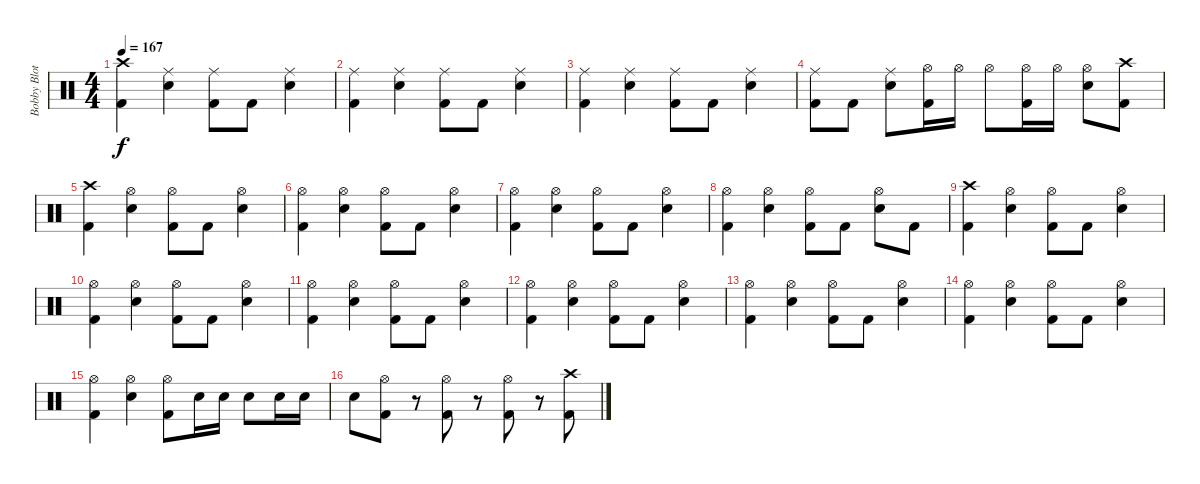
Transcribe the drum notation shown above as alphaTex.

\track ("Bobby Blotzer" "Bobby Blot") {instrument percussion}
\staff {score}
\articulation defaults
\ts (4 4)
\tempo 167
\clef neutral
\ks c
("Crash high (hit)" "Kick (hit) 2").4{dy f} ("Ride (middle)" "Electric Snare (hit)").4 ("Ride (middle)" "Kick (hit) 2").8 "Kick (hit) 2".8 ("Ride (middle)" "Electric Snare (hit)").4 |
("Ride (middle)" "Kick (hit) 2").4 ("Ride (middle)" "Electric Snare (hit)").4 ("Ride (middle)" "Kick (hit) 2").8 "Kick (hit) 2".8 ("Ride (middle)" "Electric Snare (hit)").4 |
("Ride (middle)" "Kick (hit) 2").4 ("Ride (middle)" "Electric Snare (hit)").4 ("Ride (middle)" "Kick (hit) 2").8 "Kick (hit) 2".8 ("Ride (middle)" "Electric Snare (hit)").4 |
("Ride (middle)" "Kick (hit) 2").8 "Kick (hit) 2".8 ("Ride (middle)" "Electric Snare (hit)").8 ("Hi-Hat (open)" "Kick (hit) 2").16 "Hi-Hat (open)".16 "Hi-Hat (open)".8 ("Hi-Hat (open)" "Kick (hit) 2").16 "Hi-Hat (open)".16 ("Hi-Hat (open)" "Electric Snare (hit)").8 ("Crash high (hit)" "Kick (hit) 2").8 |
("Crash high (hit)" "Kick (hit) 2").4 ("Hi-Hat (open)" "Electric Snare (hit)").4 ("Hi-Hat (open)" "Kick (hit) 2").8 "Kick (hit) 2".8 ("Hi-Hat (open)" "Electric Snare (hit)").4 |
("Hi-Hat (open)" "Kick (hit) 2").4 ("Hi-Hat (open)" "Electric Snare (hit)").4 ("Hi-Hat (open)" "Kick (hit) 2").8 "Kick (hit) 2".8 ("Hi-Hat (open)" "Electric Snare (hit)").4 |
("Hi-Hat (open)" "Kick (hit) 2").4 ("Hi-Hat (open)" "Electric Snare (hit)").4 ("Hi-Hat (open)" "Kick (hit) 2").8 "Kick (hit) 2".8 ("Hi-Hat (open)" "Electric Snare (hit)").4 |
("Hi-Hat (open)" "Kick (hit) 2").4 ("Hi-Hat (open)" "Electric Snare (hit)").4 ("Hi-Hat (open)" "Kick (hit) 2").8 "Kick (hit) 2".8 ("Hi-Hat (open)" "Electric Snare (hit)").8 "Kick (hit) 2".8 |
("Crash high (hit)" "Kick (hit) 2").4 ("Hi-Hat (open)" "Electric Snare (hit)").4 ("Hi-Hat (open)" "Kick (hit) 2").8 "Kick (hit) 2".8 ("Hi-Hat (open)" "Electric Snare (hit)").4 |
("Hi-Hat (open)" "Kick (hit) 2").4 ("Hi-Hat (open)" "Electric Snare (hit)").4 ("Hi-Hat (open)" "Kick (hit) 2").8 "Kick (hit) 2".8 ("Hi-Hat (open)" "Electric Snare (hit)").4 |
("Hi-Hat (open)" "Kick (hit) 2").4 ("Hi-Hat (open)" "Electric Snare (hit)").4 ("Hi-Hat (open)" "Kick (hit) 2").8 "Kick (hit) 2".8 ("Hi-Hat (open)" "Electric Snare (hit)").4 |
("Hi-Hat (open)" "Kick (hit) 2").4 ("Hi-Hat (open)" "Electric Snare (hit)").4 ("Hi-Hat (open)" "Kick (hit) 2").8 "Kick (hit) 2".8 ("Hi-Hat (open)" "Electric Snare (hit)").4 |
("Hi-Hat (open)" "Kick (hit) 2").4 ("Hi-Hat (open)" "Electric Snare (hit)").4 ("Hi-Hat (open)" "Kick (hit) 2").8 "Kick (hit) 2".8 ("Hi-Hat (open)" "Electric Snare (hit)").4 |
("Hi-Hat (open)" "Kick (hit) 2").4 ("Hi-Hat (open)" "Electric Snare (hit)").4 ("Hi-Hat (open)" "Kick (hit) 2").8 "Kick (hit) 2".8 ("Hi-Hat (open)" "Electric Snare (hit)").4 |
("Hi-Hat (open)" "Kick (hit) 2").4 ("Hi-Hat (open)" "Electric Snare (hit)").4 ("Hi-Hat (open)" "Kick (hit) 2").8 "Electric Snare (hit)".16 "Electric Snare (hit)".16 "Electric Snare (hit)".8 "Electric Snare (hit)".16 "Electric Snare (hit)".16 |
"Electric Snare (hit)".8 ("Hi-Hat (open)" "Kick (hit) 2").8 r.8 ("Hi-Hat (open)" "Kick (hit) 2").8 r.8 ("Hi-Hat (open)" "Kick (hit) 2").8 r.8 ("Crash high (hit)" "Kick (hit) 2").8
